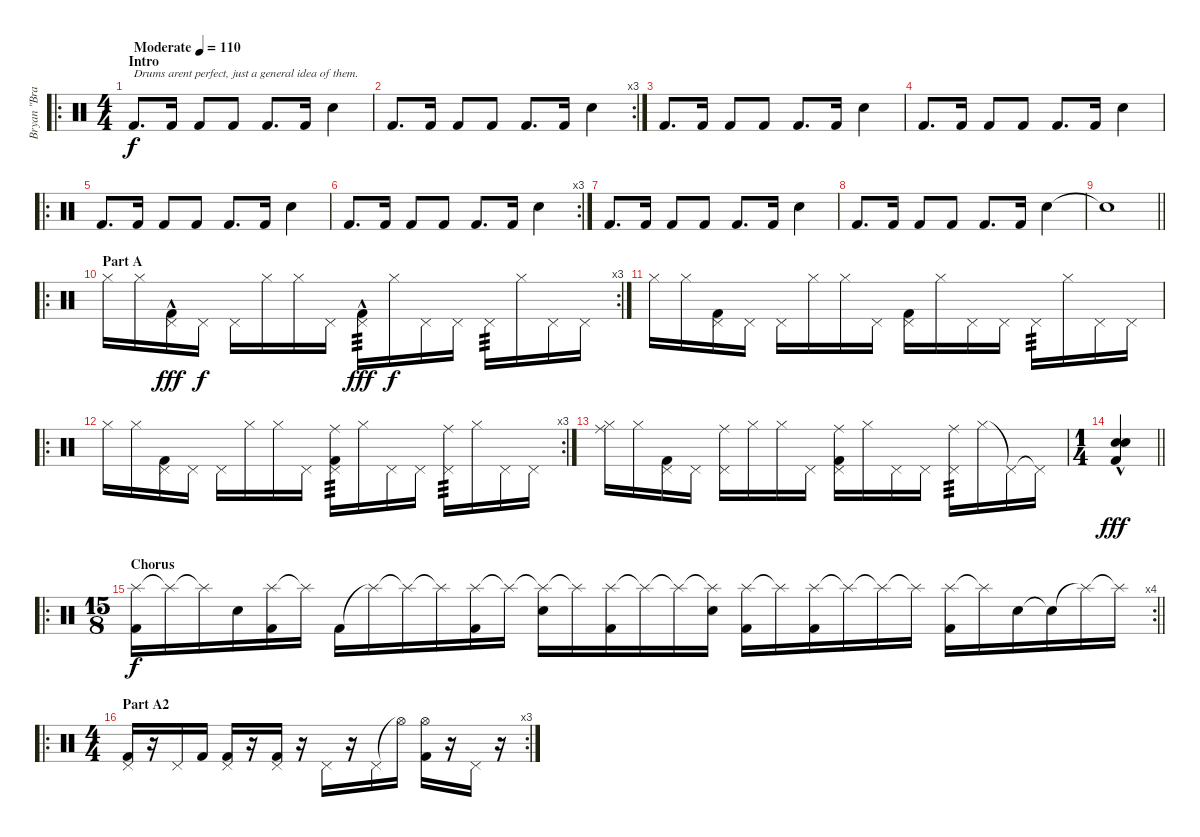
\track ("Bryan \"Brain\" Mantia" "Bryan \"Bra") {instrument percussion}
\staff {score}
\articulation defaults
\ro
\ts (4 4)
\section ("" "Intro")
\tempo (110 "Moderate")
\clef neutral
\ks c "Kick (hit) 2".8{d txt "Drums arent perfect, just a general idea of them. " dy f} "Kick (hit) 2".16{balance 0} "Kick (hit) 2".8{balance 16} "Kick (hit) 2".8{balance 8} "Kick (hit) 2".8{d} "Kick (hit) 2".16 "Snare (hit) 2".4
|
\rc 3 "Kick (hit) 2".8{d} "Kick (hit) 2".16{balance 0} "Kick (hit) 2".8{balance 16} "Kick (hit) 2".8{balance 8} "Kick (hit) 2".8{d} "Kick (hit) 2".16 "Snare (hit) 2".4
|
"Kick (hit) 2".8{d} "Kick (hit) 2".16{balance 0} "Kick (hit) 2".8{balance 16} "Kick (hit) 2".8{balance 8} "Kick (hit) 2".8{d} "Kick (hit) 2".16 "Snare (hit) 2".4 |
"Kick (hit) 2".8{d} "Kick (hit) 2".16{balance 0} "Kick (hit) 2".8{balance 16} "Kick (hit) 2".8{balance 8} "Kick (hit) 2".8{d} "Kick (hit) 2".16 "Snare (hit) 2".4 |
\ro "Kick (hit) 2".8{d} "Kick (hit) 2".16{balance 0} "Kick (hit) 2".8{balance 16} "Kick (hit) 2".8{balance 8} "Kick (hit) 2".8{d} "Kick (hit) 2".16 "Snare (hit) 2".4
|
\rc 3 "Kick (hit) 2".8{d} "Kick (hit) 2".16{balance 0} "Kick (hit) 2".8{balance 16} "Kick (hit) 2".8{balance 8} "Kick (hit) 2".8{d} "Kick (hit) 2".16 "Snare (hit) 2".4
|
"Kick (hit) 2".8{d} "Kick (hit) 2".16{balance 0} "Kick (hit) 2".8{balance 16} "Kick (hit) 2".8{balance 8} "Kick (hit) 2".8{d} "Kick (hit) 2".16 "Snare (hit) 2".4 |
"Kick (hit) 2".8{d} "Kick (hit) 2".16{balance 0} "Kick (hit) 2".8{balance 16} "Kick (hit) 2".8{balance 8} "Kick (hit) 2".8{d} "Kick (hit) 2".16 "Snare (hit) 2".4 |
\barLineRight lightlight "Snare (hit) 2"{t}.1
|
\ro
\rc 3
\section ("" "Part A")
"Hi-Hat (closed)".16{volume 6} "Hi-Hat (closed)".16 ("Pedal Hi-Hat (hit)" "Kick (hit) 2"{hac}).16{dy fff} "Pedal Hi-Hat (hit)".16{dy f} "Pedal Hi-Hat (hit)".16 "Hi-Hat (closed)".16 "Hi-Hat (closed)".16 "Pedal Hi-Hat (hit)".16 ("Pedal Hi-Hat (hit)" "Kick (hit) 2"{hac}).16{tp 3 dy fff} "Hi-Hat (closed)".16{dy f} "Pedal Hi-Hat (hit)".16 "Pedal Hi-Hat (hit)".16 "Pedal Hi-Hat (hit)".16{tp 3} "Hi-Hat (closed)".16 "Pedal Hi-Hat (hit)".16 "Pedal Hi-Hat (hit)".16 |
"Hi-Hat (closed)".16 "Hi-Hat (closed)".16 ("Pedal Hi-Hat (hit)" "Kick (hit) 2").16 "Pedal Hi-Hat (hit)".16 "Pedal Hi-Hat (hit)".16 "Hi-Hat (closed)".16 "Hi-Hat (closed)".16 "Pedal Hi-Hat (hit)".16 ("Pedal Hi-Hat (hit)" "Kick (hit) 2").16 "Hi-Hat (closed)".16 "Pedal Hi-Hat (hit)".16 "Pedal Hi-Hat (hit)".16 "Pedal Hi-Hat (hit)".16{tp 3} "Hi-Hat (closed)".16 "Pedal Hi-Hat (hit)".16 "Pedal Hi-Hat (hit)".16 |
\ro
\rc 3 "Hi-Hat (closed)".16 "Hi-Hat (closed)".16
("Pedal Hi-Hat (hit)" "Kick (hit) 2").16 "Pedal Hi-Hat (hit)".16 "Pedal Hi-Hat (hit)".16 "Hi-Hat (closed)".16 "Hi-Hat (closed)".16 "Pedal Hi-Hat (hit)".16 ("Pedal Hi-Hat (hit)" "Ride (middle)" "Kick (hit) 2").16{tp 3} "Hi-Hat (closed)".16 "Pedal Hi-Hat (hit)".16 "Pedal Hi-Hat (hit)".16 ("Pedal Hi-Hat (hit)" "Ride (middle)").16{tp 3} "Hi-Hat (closed)".16 "Pedal Hi-Hat (hit)".16 "Pedal Hi-Hat (hit)".16 |
("Hi-Hat (closed)" "Ride (middle)").16 "Hi-Hat (closed)".16 ("Pedal Hi-Hat (hit)" "Kick (hit) 2").16 "Pedal Hi-Hat (hit)".16 ("Pedal Hi-Hat (hit)" "Ride (middle)").16 "Hi-Hat (closed)".16 "Hi-Hat (closed)".16 "Pedal Hi-Hat (hit)".16 ("Pedal Hi-Hat (hit)" "Ride (middle)" "Kick (hit) 2").16 "Hi-Hat (closed)".16 "Pedal Hi-Hat (hit)".16 "Pedal Hi-Hat (hit)".16 ("Pedal Hi-Hat (hit)" "Ride (middle)").16{tp 3} "Hi-Hat (closed)".16 "Pedal Hi-Hat (hit)"{t}.16 "Pedal Hi-Hat (hit)"{t}.16 |
\ts (1 4)
\barLineRight lightlight
("Electric Snare (hit)" "Snare (hit) 2"{hac} "Kick (hit) 2").4{dy fff} |
\ro
\rc 4
\ts (15 8)
\section ("" "Chorus")
\barLineRight lightlight
("Splash (hit)" "Kick (hit) 2").16{dy f} "Splash (hit)"{t}.16 "Splash (hit)"{t}.16 "Snare (hit) 2".16 ("Splash (hit)" "Kick (hit) 2").16 "Splash (hit)"{t}.16 "Kick (hit) 2".16 "Splash (hit)"{t}.16 "Splash (hit)"{t}.16 "Splash (hit)"{t}.16 ("Splash (hit)" "Kick (hit) 2").16 "Splash (hit)"{t}.16 ("Splash (hit)"{t} "Snare (hit) 2").16 "Splash (hit)"{t}.16 ("Splash (hit)" "Kick (hit) 2").16 "Splash (hit)"{t}.16 "Splash (hit)"{t}.16 ("Splash (hit)"{t} "Snare (hit) 2").16 ("Splash (hit)" "Kick (hit) 2").16 "Splash (hit)"{t}.16 ("Splash (hit)" "Kick (hit) 2").16 "Splash (hit)"{t}.16 "Splash (hit)"{t}.16 "Splash (hit)"{t}.16 ("Splash (hit)" "Kick (hit) 2").16 "Splash (hit)"{t}.16 "Snare (hit) 2".16 "Snare (hit) 2"{t}.16 "Splash (hit)"{t}.16 "Splash (hit)"{t}.16 |
\ro
\rc 3
\ts (4 4)
\section ("" "Part A2")
("Pedal Hi-Hat (hit)" "Kick (hit) 2").16 r.16 "Pedal Hi-Hat (hit)".16 "Kick (hit) 2".16 ("Pedal Hi-Hat (hit)" "Kick (hit) 2").16 r.16 ("Pedal Hi-Hat (hit)" "Kick (hit) 2").16 r.16 "Pedal Hi-Hat (hit)".16 r.16 "Pedal Hi-Hat (hit)".16 "Hi-Hat (open)"{t}.16 ("Hi-Hat (open)" "Kick (hit) 2").16 r.16 "Pedal Hi-Hat (hit)".16 r.16
